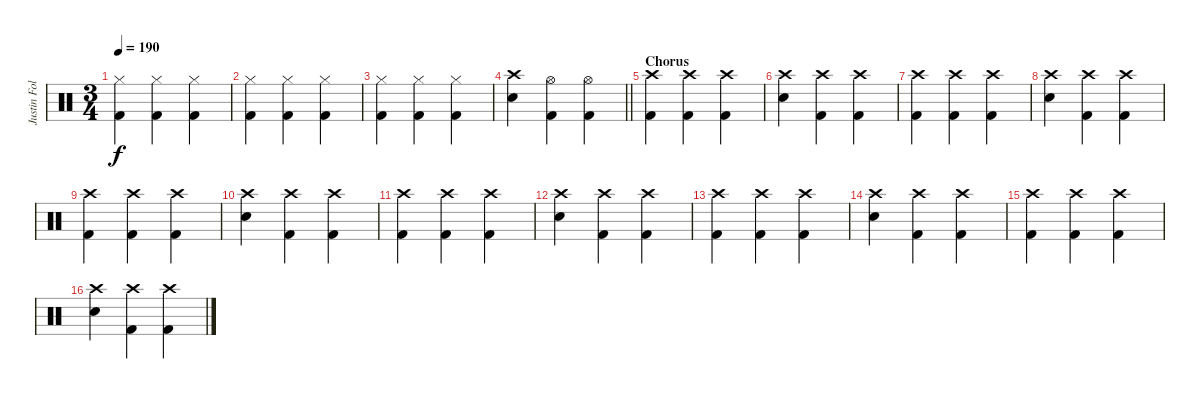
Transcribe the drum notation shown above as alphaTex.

\track ("Justin Foley" "Justin Fol") {instrument percussion}
\staff {score}
\articulation defaults
\ts (3 4)
\tempo 190
\clef neutral
\ks c
("Hi-Hat (closed)" "Kick (hit) 2").4{dy f} ("Hi-Hat (closed)" "Kick (hit) 2").4 ("Hi-Hat (closed)" "Kick (hit) 2").4 |
("Hi-Hat (closed)" "Kick (hit) 2").4 ("Hi-Hat (closed)" "Kick (hit) 2").4 ("Hi-Hat (closed)" "Kick (hit) 2").4 |
("Hi-Hat (closed)" "Kick (hit) 2").4 ("Hi-Hat (closed)" "Kick (hit) 2").4 ("Hi-Hat (closed)" "Kick (hit) 2").4 |
\barLineRight lightlight
("Crash high (hit)" "Electric Snare (hit)").4 ("Hi-Hat (open)" "Kick (hit) 2").4 ("Hi-Hat (open)" "Kick (hit) 2").4 |
\section ("" "Chorus")
("Crash high (hit)" "Kick (hit) 2").4 ("Crash high (hit)" "Kick (hit) 2").4 ("Crash high (hit)" "Kick (hit) 2").4 |
("Crash high (hit)" "Electric Snare (hit)").4 ("Crash high (hit)" "Kick (hit) 2").4 ("Crash high (hit)" "Kick (hit) 2").4 |
("Crash high (hit)" "Kick (hit) 2").4 ("Crash high (hit)" "Kick (hit) 2").4 ("Crash high (hit)" "Kick (hit) 2").4 |
("Crash high (hit)" "Electric Snare (hit)").4 ("Crash high (hit)" "Kick (hit) 2").4 ("Crash high (hit)" "Kick (hit) 2").4 |
("Crash high (hit)" "Kick (hit) 2").4 ("Crash high (hit)" "Kick (hit) 2").4 ("Crash high (hit)" "Kick (hit) 2").4 |
("Crash high (hit)" "Electric Snare (hit)").4 ("Crash high (hit)" "Kick (hit) 2").4 ("Crash high (hit)" "Kick (hit) 2").4 |
("Crash high (hit)" "Kick (hit) 2").4 ("Crash high (hit)" "Kick (hit) 2").4 ("Crash high (hit)" "Kick (hit) 2").4 |
("Crash high (hit)" "Electric Snare (hit)").4 ("Crash high (hit)" "Kick (hit) 2").4 ("Crash high (hit)" "Kick (hit) 2").4 |
("Crash high (hit)" "Kick (hit) 2").4 ("Crash high (hit)" "Kick (hit) 2").4 ("Crash high (hit)" "Kick (hit) 2").4 |
("Crash high (hit)" "Electric Snare (hit)").4 ("Crash high (hit)" "Kick (hit) 2").4 ("Crash high (hit)" "Kick (hit) 2").4 |
("Crash high (hit)" "Kick (hit) 2").4 ("Crash high (hit)" "Kick (hit) 2").4 ("Crash high (hit)" "Kick (hit) 2").4 |
("Crash high (hit)" "Electric Snare (hit)").4 ("Crash high (hit)" "Kick (hit) 2").4 ("Crash high (hit)" "Kick (hit) 2").4
